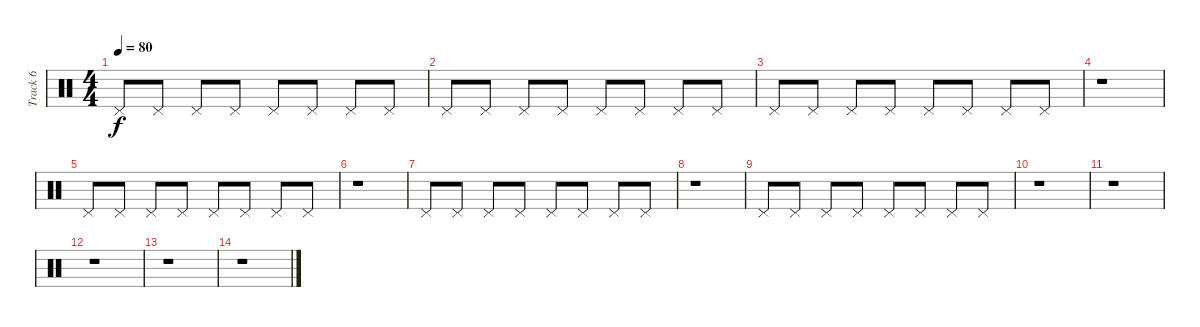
\track ("Track 6" "Track 6") {instrument percussion}
\staff {score}
\articulation defaults
\ts (4 4)
\tempo 80
\clef neutral
\ks c "Pedal Hi-Hat (hit)".8{dy f} "Pedal Hi-Hat (hit)".8 "Pedal Hi-Hat (hit)".8 "Pedal Hi-Hat (hit)".8 "Pedal Hi-Hat (hit)".8 "Pedal Hi-Hat (hit)".8 "Pedal Hi-Hat (hit)".8 "Pedal Hi-Hat (hit)".8
|
"Pedal Hi-Hat (hit)".8 "Pedal Hi-Hat (hit)".8 "Pedal Hi-Hat (hit)".8 "Pedal Hi-Hat (hit)".8 "Pedal Hi-Hat (hit)".8 "Pedal Hi-Hat (hit)".8 "Pedal Hi-Hat (hit)".8 "Pedal Hi-Hat (hit)".8 |
"Pedal Hi-Hat (hit)".8 "Pedal Hi-Hat (hit)".8 "Pedal Hi-Hat (hit)".8 "Pedal Hi-Hat (hit)".8 "Pedal Hi-Hat (hit)".8 "Pedal Hi-Hat (hit)".8 "Pedal Hi-Hat (hit)".8 "Pedal Hi-Hat (hit)".8 |
r.1 |
"Pedal Hi-Hat (hit)".8 "Pedal Hi-Hat (hit)".8 "Pedal Hi-Hat (hit)".8 "Pedal Hi-Hat (hit)".8 "Pedal Hi-Hat (hit)".8 "Pedal Hi-Hat (hit)".8 "Pedal Hi-Hat (hit)".8 "Pedal Hi-Hat (hit)".8 |
r.1 |
"Pedal Hi-Hat (hit)".8 "Pedal Hi-Hat (hit)".8 "Pedal Hi-Hat (hit)".8 "Pedal Hi-Hat (hit)".8 "Pedal Hi-Hat (hit)".8 "Pedal Hi-Hat (hit)".8 "Pedal Hi-Hat (hit)".8 "Pedal Hi-Hat (hit)".8 |
r.1 |
"Pedal Hi-Hat (hit)".8 "Pedal Hi-Hat (hit)".8 "Pedal Hi-Hat (hit)".8 "Pedal Hi-Hat (hit)".8 "Pedal Hi-Hat (hit)".8 "Pedal Hi-Hat (hit)".8 "Pedal Hi-Hat (hit)".8 "Pedal Hi-Hat (hit)".8 |
r.1 |
r.1 |
r.1 |
r.1 |
r.1
